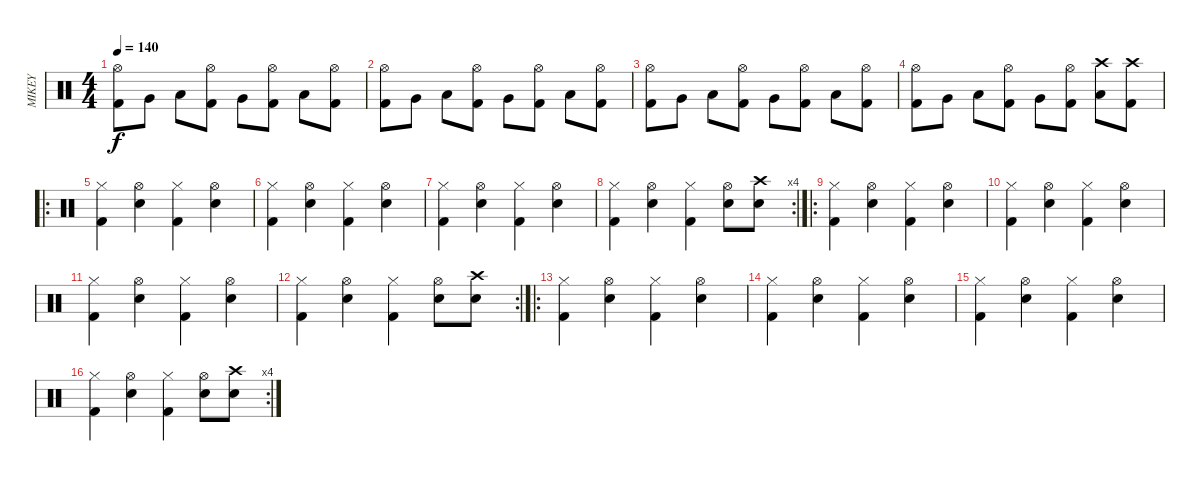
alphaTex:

\track ("MIKEY" "MIKEY") {instrument percussion}
\staff {score}
\articulation defaults
\ts (4 4)
\tempo 140
\clef neutral
\ks c
("Hi-Hat (open)" "Kick (hit) 2").8{dy f} "Very Low Tom (hit)".8 "Low Tom (hit)".8 ("Hi-Hat (open)" "Kick (hit) 2").8 "Very Low Tom (hit)".8 ("Hi-Hat (open)" "Kick (hit) 2").8 "Low Tom (hit)".8 ("Hi-Hat (open)" "Kick (hit) 2").8 |
("Hi-Hat (open)" "Kick (hit) 2").8 "Very Low Tom (hit)".8 "Low Tom (hit)".8 ("Hi-Hat (open)" "Kick (hit) 2").8 "Very Low Tom (hit)".8 ("Hi-Hat (open)" "Kick (hit) 2").8 "Low Tom (hit)".8 ("Hi-Hat (open)" "Kick (hit) 2").8 |
("Hi-Hat (open)" "Kick (hit) 2").8 "Very Low Tom (hit)".8 "Low Tom (hit)".8 ("Hi-Hat (open)" "Kick (hit) 2").8 "Very Low Tom (hit)".8 ("Hi-Hat (open)" "Kick (hit) 2").8 "Low Tom (hit)".8 ("Hi-Hat (open)" "Kick (hit) 2").8 |
("Hi-Hat (open)" "Kick (hit) 2").8 "Very Low Tom (hit)".8 "Low Tom (hit)".8 ("Hi-Hat (open)" "Kick (hit) 2").8 "Very Low Tom (hit)".8 ("Hi-Hat (open)" "Kick (hit) 2").8 ("Crash high (hit)" "Low Tom (hit)").8 ("Crash high (hit)" "Kick (hit) 2").8 |
\ro
("Hi-Hat (closed)" "Kick (hit) 2").4 ("Hi-Hat (open)" "Electric Snare (hit)").4 ("Hi-Hat (closed)" "Kick (hit) 2").4 ("Hi-Hat (open)" "Electric Snare (hit)").4 |
("Hi-Hat (closed)" "Kick (hit) 2").4 ("Hi-Hat (open)" "Electric Snare (hit)").4 ("Hi-Hat (closed)" "Kick (hit) 2").4 ("Hi-Hat (open)" "Electric Snare (hit)").4 |
("Hi-Hat (closed)" "Kick (hit) 2").4 ("Hi-Hat (open)" "Electric Snare (hit)").4 ("Hi-Hat (closed)" "Kick (hit) 2").4 ("Hi-Hat (open)" "Electric Snare (hit)").4 |
\rc 4
("Hi-Hat (closed)" "Kick (hit) 2").4 ("Hi-Hat (open)" "Electric Snare (hit)").4 ("Hi-Hat (closed)" "Kick (hit) 2").4 ("Hi-Hat (open)" "Electric Snare (hit)").8 ("Crash high (hit)" "Electric Snare (hit)").8 |
\ro
("Hi-Hat (closed)" "Kick (hit) 2").4 ("Hi-Hat (open)" "Electric Snare (hit)").4 ("Hi-Hat (closed)" "Kick (hit) 2").4 ("Hi-Hat (open)" "Electric Snare (hit)").4 |
("Hi-Hat (closed)" "Kick (hit) 2").4 ("Hi-Hat (open)" "Electric Snare (hit)").4 ("Hi-Hat (closed)" "Kick (hit) 2").4 ("Hi-Hat (open)" "Electric Snare (hit)").4 |
("Hi-Hat (closed)" "Kick (hit) 2").4 ("Hi-Hat (open)" "Electric Snare (hit)").4 ("Hi-Hat (closed)" "Kick (hit) 2").4 ("Hi-Hat (open)" "Electric Snare (hit)").4 |
\rc 2
("Hi-Hat (closed)" "Kick (hit) 2").4 ("Hi-Hat (open)" "Electric Snare (hit)").4 ("Hi-Hat (closed)" "Kick (hit) 2").4 ("Hi-Hat (open)" "Electric Snare (hit)").8 ("Crash high (hit)" "Electric Snare (hit)").8 |
\ro
("Hi-Hat (closed)" "Kick (hit) 2").4 ("Hi-Hat (open)" "Electric Snare (hit)").4 ("Hi-Hat (closed)" "Kick (hit) 2").4 ("Hi-Hat (open)" "Electric Snare (hit)").4 |
("Hi-Hat (closed)" "Kick (hit) 2").4 ("Hi-Hat (open)" "Electric Snare (hit)").4 ("Hi-Hat (closed)" "Kick (hit) 2").4 ("Hi-Hat (open)" "Electric Snare (hit)").4 |
("Hi-Hat (closed)" "Kick (hit) 2").4 ("Hi-Hat (open)" "Electric Snare (hit)").4 ("Hi-Hat (closed)" "Kick (hit) 2").4 ("Hi-Hat (open)" "Electric Snare (hit)").4 |
\rc 4
("Hi-Hat (closed)" "Kick (hit) 2").4 ("Hi-Hat (open)" "Electric Snare (hit)").4 ("Hi-Hat (closed)" "Kick (hit) 2").4 ("Hi-Hat (open)" "Electric Snare (hit)").8 ("Crash high (hit)" "Electric Snare (hit)").8
